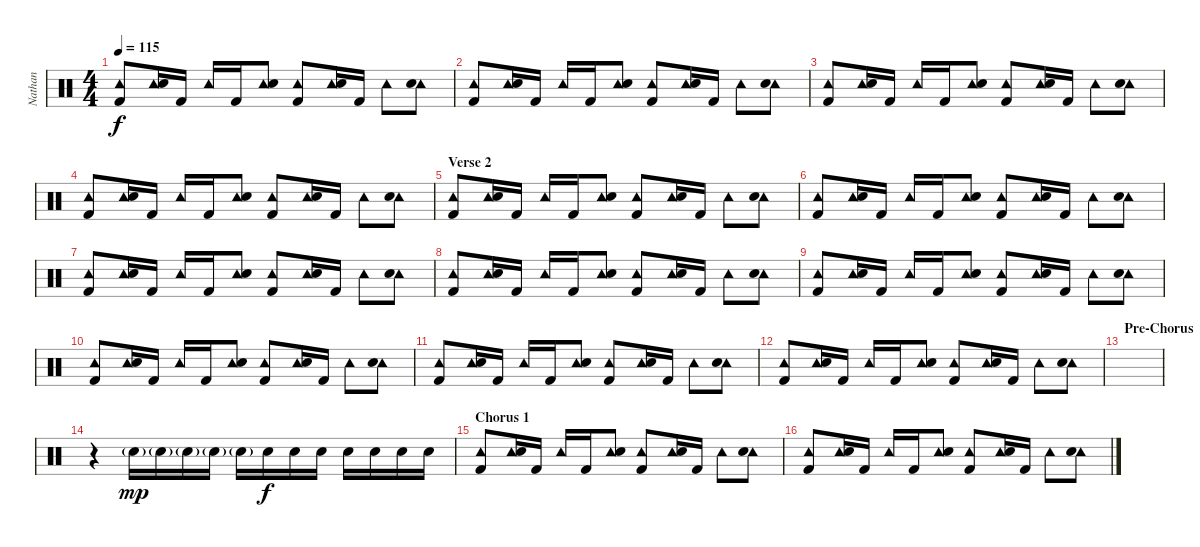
\track ("Nathan" "Nathan") {instrument percussion}
\staff {score}
\articulation defaults
\ts (4 4)
\tempo 115
\clef neutral
\ks c
("Tambourine (hit)" "Kick (hit) 2").8{dy f} ("Tambourine (hit)" "Electric Snare (hit)").16 "Kick (hit) 2".16 "Tambourine (hit)".16 "Kick (hit) 2".16 ("Tambourine (hit)" "Electric Snare (hit)").8 ("Tambourine (hit)" "Kick (hit) 2").8 ("Tambourine (hit)" "Electric Snare (hit)").16 "Kick (hit) 2".16 "Tambourine (hit)".8 ("Tambourine (hit)" "Electric Snare (hit)").8 |
("Tambourine (hit)" "Kick (hit) 2").8 ("Tambourine (hit)" "Electric Snare (hit)").16 "Kick (hit) 2".16 "Tambourine (hit)".16 "Kick (hit) 2".16 ("Tambourine (hit)" "Electric Snare (hit)").8 ("Tambourine (hit)" "Kick (hit) 2").8 ("Tambourine (hit)" "Electric Snare (hit)").16 "Kick (hit) 2".16 "Tambourine (hit)".8 ("Tambourine (hit)" "Electric Snare (hit)").8 |
("Tambourine (hit)" "Kick (hit) 2").8 ("Tambourine (hit)" "Electric Snare (hit)").16 "Kick (hit) 2".16 "Tambourine (hit)".16 "Kick (hit) 2".16 ("Tambourine (hit)" "Electric Snare (hit)").8 ("Tambourine (hit)" "Kick (hit) 2").8 ("Tambourine (hit)" "Electric Snare (hit)").16 "Kick (hit) 2".16 "Tambourine (hit)".8 ("Tambourine (hit)" "Electric Snare (hit)").8 |
("Tambourine (hit)" "Kick (hit) 2").8 ("Tambourine (hit)" "Electric Snare (hit)").16 "Kick (hit) 2".16 "Tambourine (hit)".16 "Kick (hit) 2".16 ("Tambourine (hit)" "Electric Snare (hit)").8 ("Tambourine (hit)" "Kick (hit) 2").8 ("Tambourine (hit)" "Electric Snare (hit)").16 "Kick (hit) 2".16 "Tambourine (hit)".8 ("Tambourine (hit)" "Electric Snare (hit)").8 |
\section ("" "Verse 2")
("Tambourine (hit)" "Kick (hit) 2").8 ("Tambourine (hit)" "Electric Snare (hit)").16 "Kick (hit) 2".16 "Tambourine (hit)".16 "Kick (hit) 2".16 ("Tambourine (hit)" "Electric Snare (hit)").8 ("Tambourine (hit)" "Kick (hit) 2").8 ("Tambourine (hit)" "Electric Snare (hit)").16 "Kick (hit) 2".16 "Tambourine (hit)".8 ("Tambourine (hit)" "Electric Snare (hit)").8 |
("Tambourine (hit)" "Kick (hit) 2").8 ("Tambourine (hit)" "Electric Snare (hit)").16 "Kick (hit) 2".16 "Tambourine (hit)".16 "Kick (hit) 2".16 ("Tambourine (hit)" "Electric Snare (hit)").8 ("Tambourine (hit)" "Kick (hit) 2").8 ("Tambourine (hit)" "Electric Snare (hit)").16 "Kick (hit) 2".16 "Tambourine (hit)".8 ("Tambourine (hit)" "Electric Snare (hit)").8 |
("Tambourine (hit)" "Kick (hit) 2").8 ("Tambourine (hit)" "Electric Snare (hit)").16 "Kick (hit) 2".16 "Tambourine (hit)".16 "Kick (hit) 2".16 ("Tambourine (hit)" "Electric Snare (hit)").8 ("Tambourine (hit)" "Kick (hit) 2").8 ("Tambourine (hit)" "Electric Snare (hit)").16 "Kick (hit) 2".16 "Tambourine (hit)".8 ("Tambourine (hit)" "Electric Snare (hit)").8 |
("Tambourine (hit)" "Kick (hit) 2").8 ("Tambourine (hit)" "Electric Snare (hit)").16 "Kick (hit) 2".16 "Tambourine (hit)".16 "Kick (hit) 2".16 ("Tambourine (hit)" "Electric Snare (hit)").8 ("Tambourine (hit)" "Kick (hit) 2").8 ("Tambourine (hit)" "Electric Snare (hit)").16 "Kick (hit) 2".16 "Tambourine (hit)".8 ("Tambourine (hit)" "Electric Snare (hit)").8 |
("Tambourine (hit)" "Kick (hit) 2").8 ("Tambourine (hit)" "Electric Snare (hit)").16 "Kick (hit) 2".16 "Tambourine (hit)".16 "Kick (hit) 2".16 ("Tambourine (hit)" "Electric Snare (hit)").8 ("Tambourine (hit)" "Kick (hit) 2").8 ("Tambourine (hit)" "Electric Snare (hit)").16 "Kick (hit) 2".16 "Tambourine (hit)".8 ("Tambourine (hit)" "Electric Snare (hit)").8 |
("Tambourine (hit)" "Kick (hit) 2").8 ("Tambourine (hit)" "Electric Snare (hit)").16 "Kick (hit) 2".16 "Tambourine (hit)".16 "Kick (hit) 2".16 ("Tambourine (hit)" "Electric Snare (hit)").8 ("Tambourine (hit)" "Kick (hit) 2").8 ("Tambourine (hit)" "Electric Snare (hit)").16 "Kick (hit) 2".16 "Tambourine (hit)".8 ("Tambourine (hit)" "Electric Snare (hit)").8 |
("Tambourine (hit)" "Kick (hit) 2").8 ("Tambourine (hit)" "Electric Snare (hit)").16 "Kick (hit) 2".16 "Tambourine (hit)".16 "Kick (hit) 2".16 ("Tambourine (hit)" "Electric Snare (hit)").8 ("Tambourine (hit)" "Kick (hit) 2").8 ("Tambourine (hit)" "Electric Snare (hit)").16 "Kick (hit) 2".16 "Tambourine (hit)".8 ("Tambourine (hit)" "Electric Snare (hit)").8 |
("Tambourine (hit)" "Kick (hit) 2").8 ("Tambourine (hit)" "Electric Snare (hit)").16 "Kick (hit) 2".16 "Tambourine (hit)".16 "Kick (hit) 2".16 ("Tambourine (hit)" "Electric Snare (hit)").8 ("Tambourine (hit)" "Kick (hit) 2").8 ("Tambourine (hit)" "Electric Snare (hit)").16 "Kick (hit) 2".16 "Tambourine (hit)".8 ("Tambourine (hit)" "Electric Snare (hit)").8 |
\section ("" "Pre-Chorus")
|
r.4 "Electric Snare (hit)"{g}.16{dy mp} "Electric Snare (hit)"{g}.16 "Electric Snare (hit)"{g}.16 "Electric Snare (hit)"{g}.16 "Electric Snare (hit)"{g}.16 "Electric Snare (hit)".16{dy f} "Electric Snare (hit)".16 "Electric Snare (hit)".16 "Electric Snare (hit)".16 "Electric Snare (hit)".16 "Electric Snare (hit)".16 "Electric Snare (hit)".16 |
\section ("" "Chorus 1")
("Tambourine (hit)" "Kick (hit) 2").8 ("Tambourine (hit)" "Electric Snare (hit)").16 "Kick (hit) 2".16 "Tambourine (hit)".16 "Kick (hit) 2".16 ("Tambourine (hit)" "Electric Snare (hit)").8 ("Tambourine (hit)" "Kick (hit) 2").8 ("Tambourine (hit)" "Electric Snare (hit)").16 "Kick (hit) 2".16 "Tambourine (hit)".8 ("Tambourine (hit)" "Electric Snare (hit)").8 |
("Tambourine (hit)" "Kick (hit) 2").8 ("Tambourine (hit)" "Electric Snare (hit)").16 "Kick (hit) 2".16 "Tambourine (hit)".16 "Kick (hit) 2".16 ("Tambourine (hit)" "Electric Snare (hit)").8 ("Tambourine (hit)" "Kick (hit) 2").8 ("Tambourine (hit)" "Electric Snare (hit)").16 "Kick (hit) 2".16 "Tambourine (hit)".8 ("Tambourine (hit)" "Electric Snare (hit)").8
